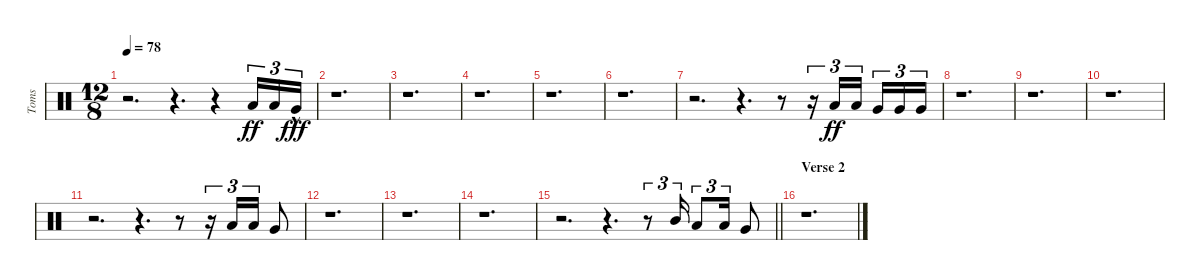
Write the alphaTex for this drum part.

\track ("Toms" "Toms") {instrument percussion}
\staff {score}
\articulation defaults
\ts (12 8)
\tempo 78
\clef neutral
\ks c
r.2{d dy fff} r.4{d} r.4{balance 8} "Low Tom (hit)".16{tu (3 2) dy ff} "Low Tom (hit)".16{tu (3 2)} "Very Low Tom (hit)"{hac}.16{tu (3 2) dy fff balance 5} |
r.1{d} |
r.1{d} |
r.1{d} |
r.1{d} |
r.1{d} |
r.2{d} r.4{d} r.8 r.16{tu (3 2) balance 8 beam Up} "Low Tom (hit)".16{tu (3 2) dy ff beam Up} "Low Tom (hit)".16{tu (3 2) beam Up beam splitsecondary} "Very Low Tom (hit)".16{tu (3 2) balance 5 beam Up} "Very Low Tom (hit)".16{tu (3 2) beam Up} "Very Low Tom (hit)".16{tu (3 2) beam Up} |
r.1{d} |
r.1{d} |
r.1{d} |
r.2{d} r.4{d} r.8 r.16{tu (3 2) balance 8 beam Up} "Low Tom (hit)".16{tu (3 2) beam Up} "Low Tom (hit)".16{tu (3 2) beam Up} "Very Low Tom (hit)".8{balance 5 beam Up} |
r.1{d} |
r.1{d} |
r.1{d} |
\barLineRight lightlight
r.2{d} r.4{d} r.8{tu (3 2) balance 8 beam Up} "Mid Tom (hit)".16{tu (3 2) beam Up} "Low Tom (hit)".8{tu (3 2) beam Up} "Low Tom (hit)".16{tu (3 2) beam Up} "Very Low Tom (hit)".8{balance 5 beam Up} |
\section ("" "Verse 2")
r.1{d}
